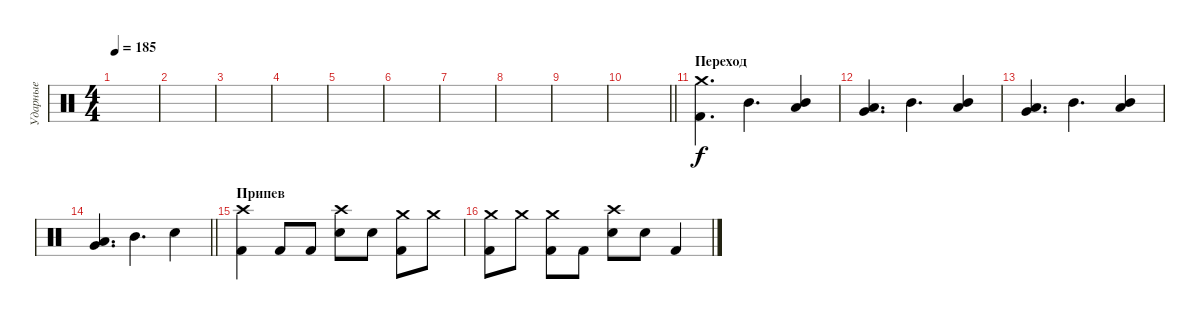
\track ("Ударные" "Ударные") {instrument percussion}
\staff {score}
\articulation defaults
\ts (4 4)
\tempo 185
\clef neutral
\ks c
|
|
|
|
|
|
|
|
|
\barLineRight lightlight
|
\section ("" "Переход")
("Crash medium (hit)" "Kick (hit) 2").4{d} "Mid Tom (hit)".4{d} ("Low Tom (hit)" "Mid Tom (hit)").4 |
("Low Tom (hit)" "Very Low Tom (hit)").4{d} "Mid Tom (hit)".4{d} ("Low Tom (hit)" "Mid Tom (hit)").4 |
("Low Tom (hit)" "Very Low Tom (hit)").4{d} "Mid Tom (hit)".4{d} ("Low Tom (hit)" "Mid Tom (hit)").4 |
\barLineRight lightlight
("Low Tom (hit)" "Very Low Tom (hit)").4{d} "Mid Tom (hit)".4{d} "Electric Snare (hit)".4 |
\section ("" "Припев")
("Crash high (hit)" "Kick (hit) 2").4 "Kick (hit) 2".8 "Kick (hit) 2".8 ("Crash high (hit)" "Electric Snare (hit)").8 "Electric Snare (hit)".8 ("Crash medium (hit)" "Kick (hit) 2").8 "Crash medium (hit)".8 |
("Crash medium (hit)" "Kick (hit) 2").8 "Crash medium (hit)".8 ("Crash medium (hit)" "Kick (hit) 2").8 "Kick (hit) 2".8 ("Crash high (hit)" "Electric Snare (hit)").8 "Electric Snare (hit)".8 "Kick (hit) 2".4
